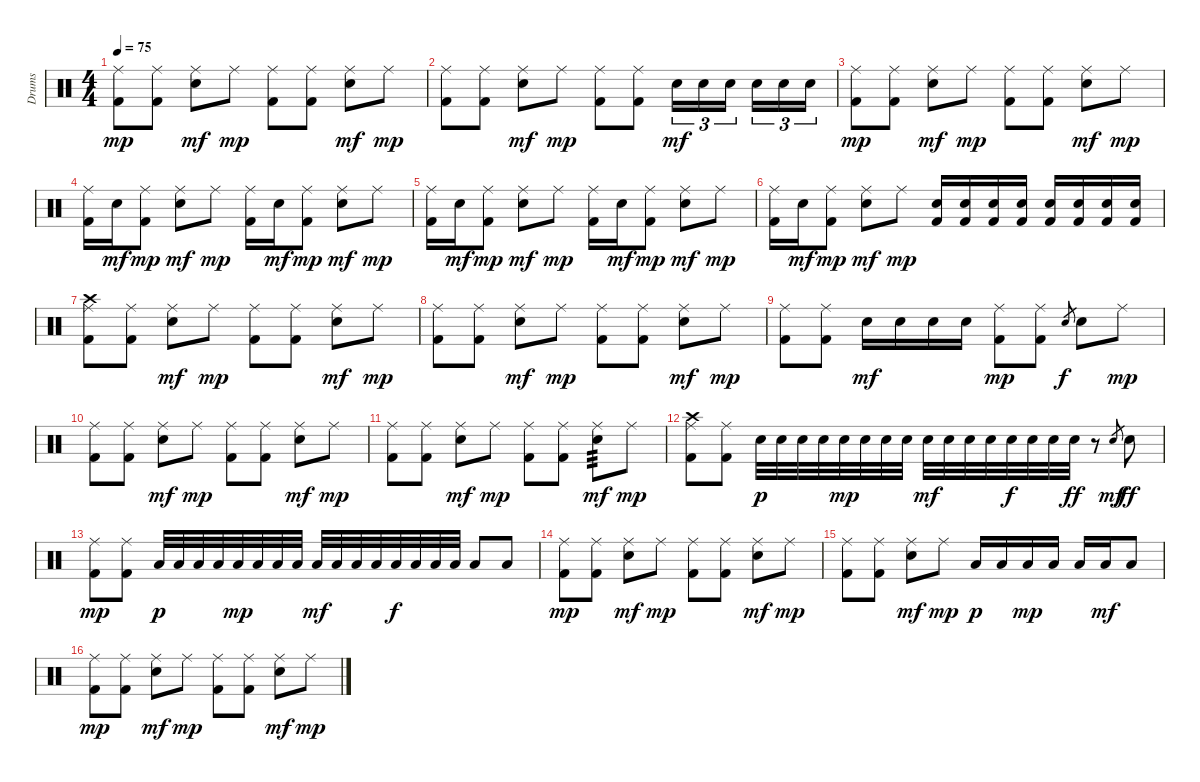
\track ("Drums" "Drums") {instrument percussion}
\staff {score}
\articulation defaults
\ts (4 4)
\tempo 75
\clef neutral
\ks c
("Ride (middle)" "Kick (hit) 2").8{dy mp} ("Ride (middle)" "Kick (hit) 2").8 ("Ride (middle)" "Electric Snare (hit)").8{dy mf} "Ride (middle)".8{dy mp} ("Ride (middle)" "Kick (hit) 2").8 ("Ride (middle)" "Kick (hit) 2").8 ("Ride (middle)" "Electric Snare (hit)").8{dy mf} "Ride (middle)".8{dy mp} |
("Ride (middle)" "Kick (hit) 2").8 ("Ride (middle)" "Kick (hit) 2").8 ("Ride (middle)" "Electric Snare (hit)").8{dy mf} "Ride (middle)".8{dy mp} ("Ride (middle)" "Kick (hit) 2").8 ("Ride (middle)" "Kick (hit) 2").8 "Electric Snare (hit)".16{tu (3 2) dy mf} "Electric Snare (hit)".16{tu (3 2)} "Electric Snare (hit)".16{tu (3 2) beam splitsecondary} "Electric Snare (hit)".16{tu (3 2)} "Electric Snare (hit)".16{tu (3 2)} "Electric Snare (hit)".16{tu (3 2)} |
("Ride (middle)" "Kick (hit) 2").8{dy mp} ("Ride (middle)" "Kick (hit) 2").8 ("Ride (middle)" "Electric Snare (hit)").8{dy mf} "Ride (middle)".8{dy mp} ("Ride (middle)" "Kick (hit) 2").8 ("Ride (middle)" "Kick (hit) 2").8 ("Ride (middle)" "Electric Snare (hit)").8{dy mf} "Ride (middle)".8{dy mp} |
("Ride (middle)" "Kick (hit) 2").16 "Electric Snare (hit)".16{dy mf} ("Ride (middle)" "Kick (hit) 2").8{dy mp} ("Ride (middle)" "Electric Snare (hit)").8{dy mf} "Ride (middle)".8{dy mp} ("Ride (middle)" "Kick (hit) 2").16 "Electric Snare (hit)".16{dy mf} ("Ride (middle)" "Kick (hit) 2").8{dy mp} ("Ride (middle)" "Electric Snare (hit)").8{dy mf} "Ride (middle)".8{dy mp} |
("Ride (middle)" "Kick (hit) 2").16 "Electric Snare (hit)".16{dy mf} ("Ride (middle)" "Kick (hit) 2").8{dy mp} ("Ride (middle)" "Electric Snare (hit)").8{dy mf} "Ride (middle)".8{dy mp} ("Ride (middle)" "Kick (hit) 2").16 "Electric Snare (hit)".16{dy mf} ("Ride (middle)" "Kick (hit) 2").8{dy mp} ("Ride (middle)" "Electric Snare (hit)").8{dy mf} "Ride (middle)".8{dy mp} |
("Ride (middle)" "Kick (hit) 2").16 "Electric Snare (hit)".16{dy mf} ("Ride (middle)" "Kick (hit) 2").8{dy mp} ("Ride (middle)" "Electric Snare (hit)").8{dy mf} "Ride (middle)".8{dy mp} ("Electric Snare (hit)" "Kick (hit) 2").16 ("Electric Snare (hit)" "Kick (hit) 2").16 ("Electric Snare (hit)" "Kick (hit) 2").16 ("Electric Snare (hit)" "Kick (hit) 2").16 ("Electric Snare (hit)" "Kick (hit) 2").16 ("Electric Snare (hit)" "Kick (hit) 2").16 ("Electric Snare (hit)" "Kick (hit) 2").16 ("Electric Snare (hit)" "Kick (hit) 2").16 |
("Crash high (hit)" "Ride (middle)" "Kick (hit) 2").8 ("Ride (middle)" "Kick (hit) 2").8 ("Ride (middle)" "Electric Snare (hit)").8{dy mf} "Ride (middle)".8{dy mp} ("Ride (middle)" "Kick (hit) 2").8 ("Ride (middle)" "Kick (hit) 2").8 ("Ride (middle)" "Electric Snare (hit)").8{dy mf} "Ride (middle)".8{dy mp} |
("Ride (middle)" "Kick (hit) 2").8 ("Ride (middle)" "Kick (hit) 2").8 ("Ride (middle)" "Electric Snare (hit)").8{dy mf} "Ride (middle)".8{dy mp} ("Ride (middle)" "Kick (hit) 2").8 ("Ride (middle)" "Kick (hit) 2").8 ("Ride (middle)" "Electric Snare (hit)").8{dy mf} "Ride (middle)".8{dy mp} |
("Ride (middle)" "Kick (hit) 2").8 ("Ride (middle)" "Kick (hit) 2").8 "Electric Snare (hit)".16{dy mf} "Electric Snare (hit)".16 "Electric Snare (hit)".16 "Electric Snare (hit)".16 ("Ride (middle)" "Kick (hit) 2").8{dy mp} ("Ride (middle)" "Kick (hit) 2").8 "Electric Snare (hit)".8{gr dy f} "Electric Snare (hit)".8 "Ride (middle)".8{dy mp} |
("Ride (middle)" "Kick (hit) 2").8 ("Ride (middle)" "Kick (hit) 2").8 ("Ride (middle)" "Electric Snare (hit)").8{dy mf} "Ride (middle)".8{dy mp} ("Ride (middle)" "Kick (hit) 2").8 ("Ride (middle)" "Kick (hit) 2").8 ("Ride (middle)" "Electric Snare (hit)").8{dy mf} "Ride (middle)".8{dy mp} |
("Ride (middle)" "Kick (hit) 2").8 ("Ride (middle)" "Kick (hit) 2").8 ("Ride (middle)" "Electric Snare (hit)").8{dy mf} "Ride (middle)".8{dy mp} ("Ride (middle)" "Kick (hit) 2").8 ("Ride (middle)" "Kick (hit) 2").8 ("Ride (middle)" "Electric Snare (hit)").8{tp 3 dy mf} "Ride (middle)".8{dy mp} |
("Crash high (hit)" "Ride (middle)" "Kick (hit) 2").8 ("Ride (middle)" "Kick (hit) 2").8 "Electric Snare (hit)".32{dy p} "Electric Snare (hit)".32 "Electric Snare (hit)".32 "Electric Snare (hit)".32 "Electric Snare (hit)".32{dy mp} "Electric Snare (hit)".32 "Electric Snare (hit)".32 "Electric Snare (hit)".32 "Electric Snare (hit)".32{dy mf} "Electric Snare (hit)".32 "Electric Snare (hit)".32 "Electric Snare (hit)".32 "Electric Snare (hit)".32{dy f} "Electric Snare (hit)".32 "Electric Snare (hit)".32 "Electric Snare (hit)".32{dy ff} r.8 "Electric Snare (hit)".8{gr dy mf} "Electric Snare (hit)".8{dy ff} |
("Ride (middle)" "Kick (hit) 2").8{dy mp} ("Ride (middle)" "Kick (hit) 2").8 "Low Tom (hit)".32{dy p} "Low Tom (hit)".32 "Low Tom (hit)".32 "Low Tom (hit)".32 "Low Tom (hit)".32{dy mp} "Low Tom (hit)".32 "Low Tom (hit)".32 "Low Tom (hit)".32 "Low Tom (hit)".32{dy mf} "Low Tom (hit)".32 "Low Tom (hit)".32 "Low Tom (hit)".32 "Low Tom (hit)".32{dy f} "Low Tom (hit)".32 "Low Tom (hit)".32 "Low Tom (hit)".32 "Low Tom (hit)".8 "Low Tom (hit)".8 |
("Ride (middle)" "Kick (hit) 2").8{dy mp} ("Ride (middle)" "Kick (hit) 2").8 ("Ride (middle)" "Electric Snare (hit)").8{dy mf} "Ride (middle)".8{dy mp} ("Ride (middle)" "Kick (hit) 2").8 ("Ride (middle)" "Kick (hit) 2").8 ("Ride (middle)" "Electric Snare (hit)").8{dy mf} "Ride (middle)".8{dy mp} |
("Ride (middle)" "Kick (hit) 2").8 ("Ride (middle)" "Kick (hit) 2").8 ("Ride (middle)" "Electric Snare (hit)").8{dy mf} "Ride (middle)".8{dy mp} "Low Tom (hit)".16{dy p} "Low Tom (hit)".16 "Low Tom (hit)".16{dy mp} "Low Tom (hit)".16 "Low Tom (hit)".16 "Low Tom (hit)".16{dy mf} "Low Tom (hit)".8 |
("Ride (middle)" "Kick (hit) 2").8{dy mp} ("Ride (middle)" "Kick (hit) 2").8 ("Ride (middle)" "Electric Snare (hit)").8{dy mf} "Ride (middle)".8{dy mp} ("Ride (middle)" "Kick (hit) 2").8 ("Ride (middle)" "Kick (hit) 2").8 ("Ride (middle)" "Electric Snare (hit)").8{dy mf} "Ride (middle)".8{dy mp}
